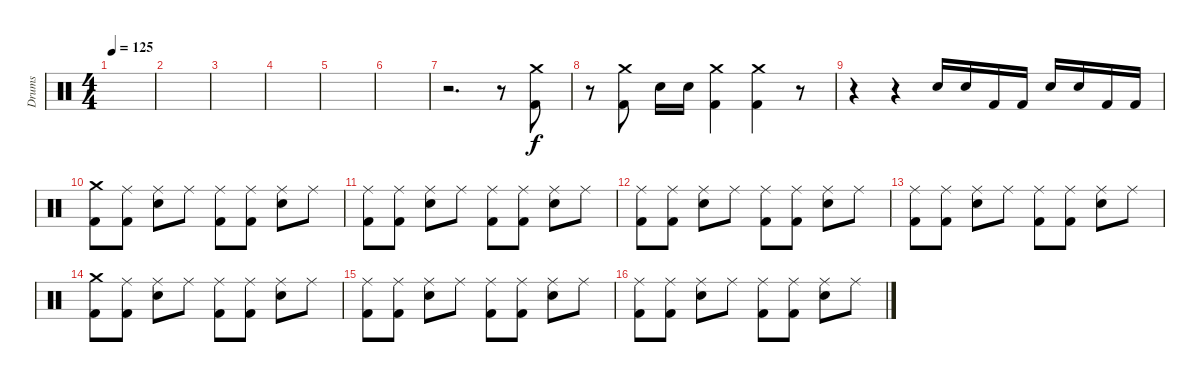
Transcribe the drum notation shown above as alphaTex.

\track ("Drums" "Drums") {instrument percussion}
\staff {score}
\articulation defaults
\ts (4 4)
\tempo 125
\clef neutral
\ks c
|
|
|
|
|
|
r.2{d} r.8 ("Crash medium (hit)" "Kick (hit) 2").8 |
r.8 ("Crash medium (hit)" "Kick (hit) 2").8 "Snare (hit) 2".16 "Snare (hit) 2".16 ("Crash medium (hit)" "Kick (hit) 2").4 ("Crash medium (hit)" "Kick (hit) 2").4 r.8 |
r.4 r.4 "Snare (hit) 2".16 "Snare (hit) 2".16 "Kick (hit) 2".16 "Kick (hit) 2".16 "Snare (hit) 2".16 "Snare (hit) 2".16 "Kick (hit) 2".16 "Kick (hit) 2".16 |
("Crash medium (hit)" "Kick (hit) 2").8 ("Ride (middle)" "Kick (hit) 2").8 ("Ride (middle)" "Snare (hit) 2").8 "Ride (middle)".8 ("Ride (middle)" "Kick (hit) 2").8 ("Ride (middle)" "Kick (hit) 2").8 ("Ride (middle)" "Snare (hit) 2").8 "Ride (middle)".8 |
("Ride (middle)" "Kick (hit) 2").8 ("Ride (middle)" "Kick (hit) 2").8 ("Ride (middle)" "Snare (hit) 2").8 "Ride (middle)".8 ("Ride (middle)" "Kick (hit) 2").8 ("Ride (middle)" "Kick (hit) 2").8 ("Ride (middle)" "Snare (hit) 2").8 "Ride (middle)".8 |
("Ride (middle)" "Kick (hit) 2").8 ("Ride (middle)" "Kick (hit) 2").8 ("Ride (middle)" "Snare (hit) 2").8 "Ride (middle)".8 ("Ride (middle)" "Kick (hit) 2").8 ("Ride (middle)" "Kick (hit) 2").8 ("Ride (middle)" "Snare (hit) 2").8 "Ride (middle)".8 |
("Ride (middle)" "Kick (hit) 2").8 ("Ride (middle)" "Kick (hit) 2").8 ("Ride (middle)" "Snare (hit) 2").8 "Ride (middle)".8 ("Ride (middle)" "Kick (hit) 2").8 ("Ride (middle)" "Kick (hit) 2").8 ("Ride (middle)" "Snare (hit) 2").8 "Ride (middle)".8 |
("Crash medium (hit)" "Kick (hit) 2").8 ("Ride (middle)" "Kick (hit) 2").8 ("Ride (middle)" "Snare (hit) 2").8 "Ride (middle)".8 ("Ride (middle)" "Kick (hit) 2").8 ("Ride (middle)" "Kick (hit) 2").8 ("Ride (middle)" "Snare (hit) 2").8 "Ride (middle)".8 |
("Ride (middle)" "Kick (hit) 2").8 ("Ride (middle)" "Kick (hit) 2").8 ("Ride (middle)" "Snare (hit) 2").8 "Ride (middle)".8 ("Ride (middle)" "Kick (hit) 2").8 ("Ride (middle)" "Kick (hit) 2").8 ("Ride (middle)" "Snare (hit) 2").8 "Ride (middle)".8 |
("Ride (middle)" "Kick (hit) 2").8 ("Ride (middle)" "Kick (hit) 2").8 ("Ride (middle)" "Snare (hit) 2").8 "Ride (middle)".8 ("Ride (middle)" "Kick (hit) 2").8 ("Ride (middle)" "Kick (hit) 2").8 ("Ride (middle)" "Snare (hit) 2").8 "Ride (middle)".8
